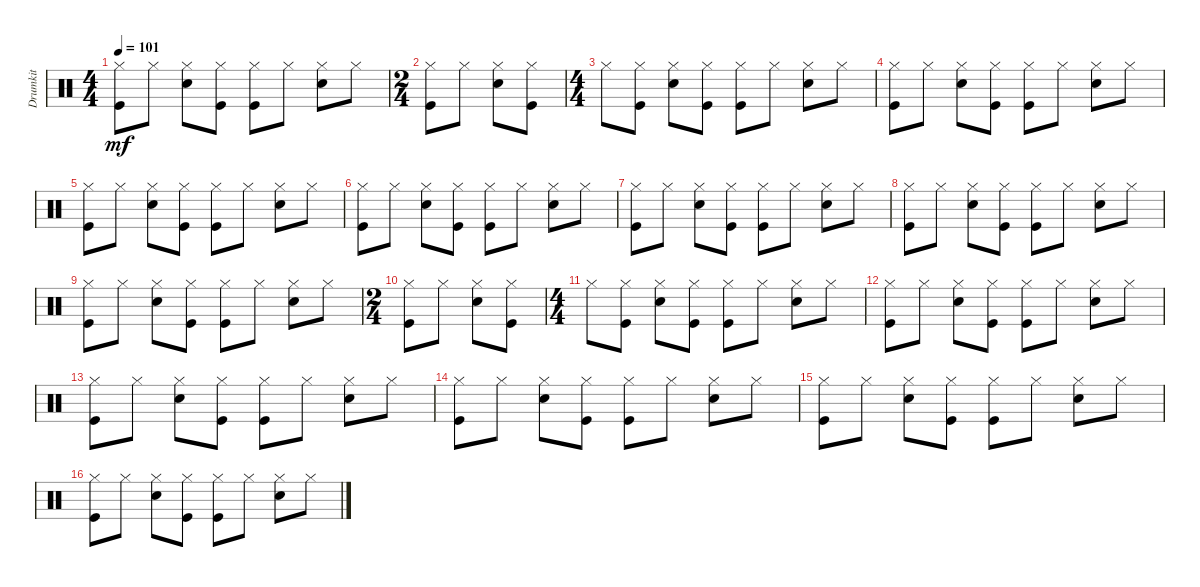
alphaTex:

\track ("Drumkit" "Drumkit") {instrument percussion}
\staff {score}
\articulation defaults
\ts (4 4)
\tempo 101
\clef neutral
\ks c
("Kick (hit)" "Hi-Hat (closed)").8{dy mf} "Hi-Hat (closed)".8 ("Hi-Hat (closed)" "Snare (hit) 2").8 ("Hi-Hat (closed)" "Kick (hit)").8 ("Hi-Hat (closed)" "Kick (hit)").8 "Hi-Hat (closed)".8 ("Hi-Hat (closed)" "Snare (hit) 2").8 "Hi-Hat (closed)".8 |
\ts (2 4)
("Kick (hit)" "Hi-Hat (closed)").8 "Hi-Hat (closed)".8 ("Hi-Hat (closed)" "Snare (hit) 2").8 ("Hi-Hat (closed)" "Kick (hit)").8 |
\ts (4 4)
"Hi-Hat (closed)".8 ("Hi-Hat (closed)" "Kick (hit)").8 ("Hi-Hat (closed)" "Snare (hit) 2").8 ("Hi-Hat (closed)" "Kick (hit)").8 ("Hi-Hat (closed)" "Kick (hit)").8 "Hi-Hat (closed)".8 ("Hi-Hat (closed)" "Snare (hit) 2").8 "Hi-Hat (closed)".8 |
("Kick (hit)" "Hi-Hat (closed)").8 "Hi-Hat (closed)".8 ("Hi-Hat (closed)" "Snare (hit) 2").8 ("Hi-Hat (closed)" "Kick (hit)").8 ("Hi-Hat (closed)" "Kick (hit)").8 "Hi-Hat (closed)".8 ("Hi-Hat (closed)" "Snare (hit) 2").8 "Hi-Hat (closed)".8 |
("Kick (hit)" "Hi-Hat (closed)").8 "Hi-Hat (closed)".8 ("Hi-Hat (closed)" "Snare (hit) 2").8 ("Hi-Hat (closed)" "Kick (hit)").8 ("Hi-Hat (closed)" "Kick (hit)").8 "Hi-Hat (closed)".8 ("Hi-Hat (closed)" "Snare (hit) 2").8 "Hi-Hat (closed)".8 |
("Kick (hit)" "Hi-Hat (closed)").8 "Hi-Hat (closed)".8 ("Hi-Hat (closed)" "Snare (hit) 2").8 ("Hi-Hat (closed)" "Kick (hit)").8 ("Hi-Hat (closed)" "Kick (hit)").8 "Hi-Hat (closed)".8 ("Hi-Hat (closed)" "Snare (hit) 2").8 "Hi-Hat (closed)".8 |
("Hi-Hat (closed)" "Kick (hit)").8 "Hi-Hat (closed)".8 ("Hi-Hat (closed)" "Snare (hit) 2").8 ("Hi-Hat (closed)" "Kick (hit)").8 ("Hi-Hat (closed)" "Kick (hit)").8 "Hi-Hat (closed)".8 ("Hi-Hat (closed)" "Snare (hit) 2").8 "Hi-Hat (closed)".8 |
("Kick (hit)" "Hi-Hat (closed)").8 "Hi-Hat (closed)".8 ("Hi-Hat (closed)" "Snare (hit) 2").8 ("Hi-Hat (closed)" "Kick (hit)").8 ("Hi-Hat (closed)" "Kick (hit)").8 "Hi-Hat (closed)".8 ("Hi-Hat (closed)" "Snare (hit) 2").8 "Hi-Hat (closed)".8 |
("Kick (hit)" "Hi-Hat (closed)").8 "Hi-Hat (closed)".8 ("Hi-Hat (closed)" "Snare (hit) 2").8 ("Hi-Hat (closed)" "Kick (hit)").8 ("Hi-Hat (closed)" "Kick (hit)").8 "Hi-Hat (closed)".8 ("Hi-Hat (closed)" "Snare (hit) 2").8 "Hi-Hat (closed)".8 |
\ts (2 4)
("Kick (hit)" "Hi-Hat (closed)").8 "Hi-Hat (closed)".8 ("Hi-Hat (closed)" "Snare (hit) 2").8 ("Hi-Hat (closed)" "Kick (hit)").8 |
\ts (4 4)
"Hi-Hat (closed)".8 ("Hi-Hat (closed)" "Kick (hit)").8 ("Hi-Hat (closed)" "Snare (hit) 2").8 ("Hi-Hat (closed)" "Kick (hit)").8 ("Hi-Hat (closed)" "Kick (hit)").8 "Hi-Hat (closed)".8 ("Hi-Hat (closed)" "Snare (hit) 2").8 "Hi-Hat (closed)".8 |
("Kick (hit)" "Hi-Hat (closed)").8 "Hi-Hat (closed)".8 ("Hi-Hat (closed)" "Snare (hit) 2").8 ("Hi-Hat (closed)" "Kick (hit)").8 ("Hi-Hat (closed)" "Kick (hit)").8 "Hi-Hat (closed)".8 ("Hi-Hat (closed)" "Snare (hit) 2").8 "Hi-Hat (closed)".8 |
("Kick (hit)" "Hi-Hat (closed)").8 "Hi-Hat (closed)".8 ("Hi-Hat (closed)" "Snare (hit) 2").8 ("Hi-Hat (closed)" "Kick (hit)").8 ("Hi-Hat (closed)" "Kick (hit)").8 "Hi-Hat (closed)".8 ("Hi-Hat (closed)" "Snare (hit) 2").8 "Hi-Hat (closed)".8 |
("Kick (hit)" "Hi-Hat (closed)").8 "Hi-Hat (closed)".8 ("Hi-Hat (closed)" "Snare (hit) 2").8 ("Hi-Hat (closed)" "Kick (hit)").8 ("Hi-Hat (closed)" "Kick (hit)").8 "Hi-Hat (closed)".8 ("Hi-Hat (closed)" "Snare (hit) 2").8 "Hi-Hat (closed)".8 |
("Hi-Hat (closed)" "Kick (hit)").8 "Hi-Hat (closed)".8 ("Hi-Hat (closed)" "Snare (hit) 2").8 ("Hi-Hat (closed)" "Kick (hit)").8 ("Hi-Hat (closed)" "Kick (hit)").8 "Hi-Hat (closed)".8 ("Hi-Hat (closed)" "Snare (hit) 2").8 "Hi-Hat (closed)".8 |
("Kick (hit)" "Hi-Hat (closed)").8 "Hi-Hat (closed)".8 ("Hi-Hat (closed)" "Snare (hit) 2").8 ("Hi-Hat (closed)" "Kick (hit)").8 ("Hi-Hat (closed)" "Kick (hit)").8 "Hi-Hat (closed)".8 ("Hi-Hat (closed)" "Snare (hit) 2").8 "Hi-Hat (closed)".8
